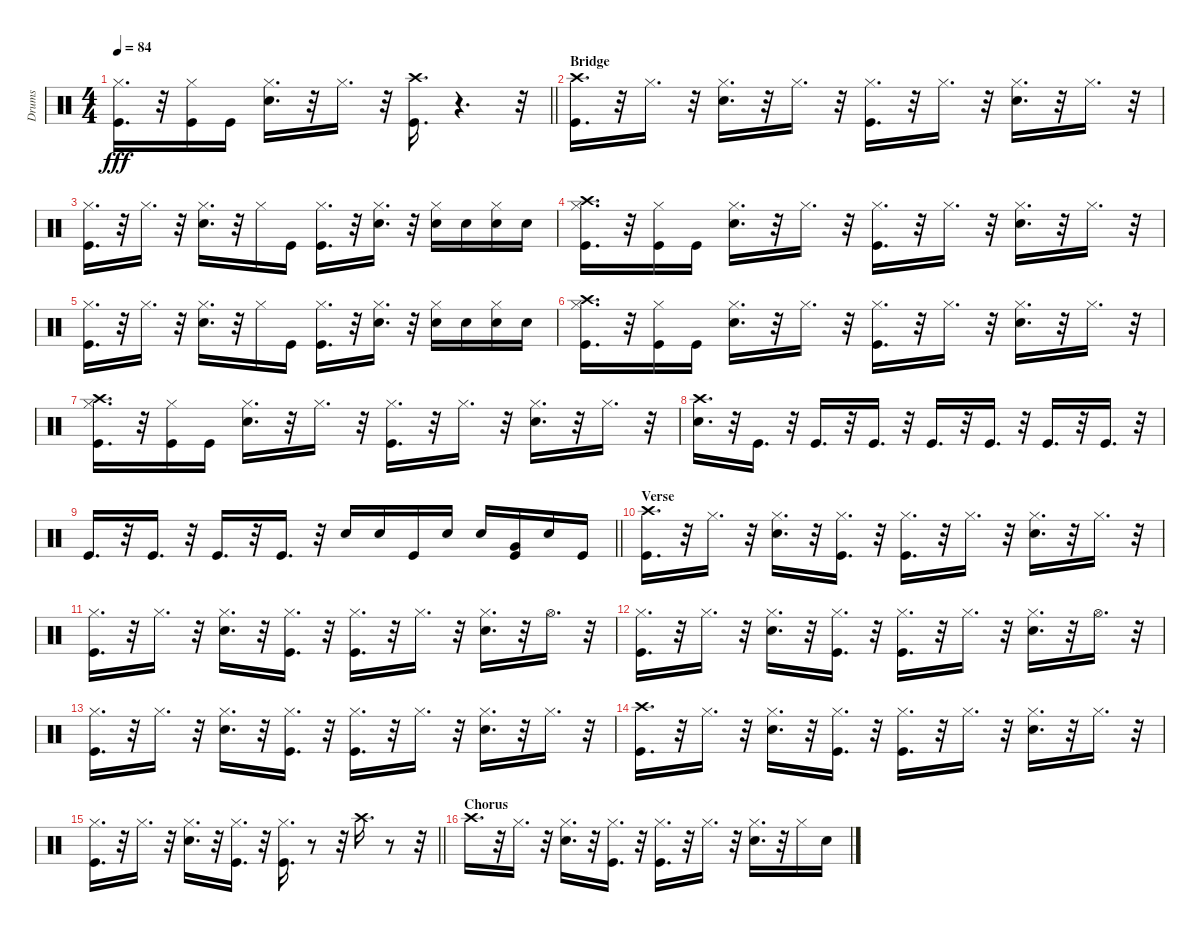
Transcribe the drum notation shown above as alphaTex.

\track ("Drums" "Drums") {instrument percussion}
\staff {score}
\articulation defaults
\ts (4 4)
\tempo 84
\clef neutral
\barLineRight lightlight
\ks c
("Kick (hit)" "Hi-Hat (closed)").16{d dy fff} r.32 ("Kick (hit)" "Hi-Hat (closed)").16 "Kick (hit)".16 ("Snare (hit) 2" "Hi-Hat (closed)").16{d} r.32 "Hi-Hat (closed)".16{d} r.32 ("Crash high (hit)" "Kick (hit)").16{d} r.4{d} r.32 |
\section ("" "Bridge")
("Crash high (hit)" "Kick (hit)").16{d} r.32 "Hi-Hat (closed)".16{d} r.32 ("Snare (hit) 2" "Hi-Hat (closed)").16{d} r.32 "Hi-Hat (closed)".16{d} r.32 ("Hi-Hat (closed)" "Kick (hit)").16{d} r.32 "Hi-Hat (closed)".16{d} r.32 ("Hi-Hat (closed)" "Snare (hit) 2").16{d} r.32 "Hi-Hat (closed)".16{d} r.32 |
("Kick (hit)" "Hi-Hat (closed)").16{d} r.32 "Hi-Hat (closed)".16{d} r.32 ("Snare (hit) 2" "Hi-Hat (closed)").16{d} r.32 "Hi-Hat (closed)".16 "Kick (hit)".16 ("Hi-Hat (closed)" "Kick (hit)").16{d} r.32 ("Hi-Hat (closed)" "Snare (hit) 2").16{d} r.32 ("Hi-Hat (closed)" "Snare (hit) 2").16 "Snare (hit) 2".16 ("Hi-Hat (closed)" "Snare (hit) 2").16 "Snare (hit) 2".16 |
("Crash high (hit)" "Kick (hit)" "Hi-Hat (closed)").16{d} r.32 ("Hi-Hat (closed)" "Kick (hit)").16 "Kick (hit)".16 ("Snare (hit) 2" "Hi-Hat (closed)").16{d} r.32 "Hi-Hat (closed)".16{d} r.32 ("Hi-Hat (closed)" "Kick (hit)").16{d} r.32 "Hi-Hat (closed)".16{d} r.32 ("Hi-Hat (closed)" "Snare (hit) 2").16{d} r.32 "Hi-Hat (closed)".16{d} r.32 |
("Kick (hit)" "Hi-Hat (closed)").16{d} r.32 "Hi-Hat (closed)".16{d} r.32 ("Snare (hit) 2" "Hi-Hat (closed)").16{d} r.32 "Hi-Hat (closed)".16 "Kick (hit)".16 ("Hi-Hat (closed)" "Kick (hit)").16{d} r.32 ("Hi-Hat (closed)" "Snare (hit) 2").16{d} r.32 ("Hi-Hat (closed)" "Snare (hit) 2").16 "Snare (hit) 2".16 ("Hi-Hat (closed)" "Snare (hit) 2").16 "Snare (hit) 2".16 |
("Crash high (hit)" "Kick (hit)" "Hi-Hat (closed)").16{d} r.32 ("Hi-Hat (closed)" "Kick (hit)").16 "Kick (hit)".16 ("Snare (hit) 2" "Hi-Hat (closed)").16{d} r.32 "Hi-Hat (closed)".16{d} r.32 ("Hi-Hat (closed)" "Kick (hit)").16{d} r.32 "Hi-Hat (closed)".16{d} r.32 ("Hi-Hat (closed)" "Snare (hit) 2").16{d} r.32 "Hi-Hat (closed)".16{d} r.32 |
("Crash high (hit)" "Kick (hit)" "Hi-Hat (closed)").16{d} r.32 ("Hi-Hat (closed)" "Kick (hit)").16 "Kick (hit)".16 ("Snare (hit) 2" "Hi-Hat (closed)").16{d} r.32 "Hi-Hat (closed)".16{d} r.32 ("Hi-Hat (closed)" "Kick (hit)").16{d} r.32 "Hi-Hat (closed)".16{d} r.32 ("Hi-Hat (closed)" "Snare (hit) 2").16{d} r.32 "Hi-Hat (closed)".16{d} r.32 |
("Crash high (hit)" "Snare (hit) 2").16{d} r.32 "Kick (hit)".16{d} r.32 "Kick (hit)".16{d} r.32 "Kick (hit)".16{d} r.32 "Kick (hit)".16{d} r.32 "Kick (hit)".16{d} r.32 "Kick (hit)".16{d} r.32 "Kick (hit)".16{d} r.32 |
\barLineRight lightlight "Kick (hit)".16{d}
r.32 "Kick (hit)".16{d} r.32 "Kick (hit)".16{d} r.32 "Kick (hit)".16{d} r.32 "Snare (hit) 2".16 "Snare (hit) 2".16 "Kick (hit)".16 "Snare (hit) 2".16 "Snare (hit) 2".16 ("Kick (hit)" "Very Low Tom (hit)").16 "Snare (hit) 2".16 "Kick (hit)".16 |
\section ("" "Verse")
("Crash high (hit)" "Kick (hit)").16{d} r.32 "Hi-Hat (closed)".16{d} r.32 ("Snare (hit) 2" "Hi-Hat (closed)").16{d} r.32 ("Hi-Hat (closed)" "Kick (hit)").16{d} r.32 ("Hi-Hat (closed)" "Kick (hit)").16{d} r.32 "Hi-Hat (closed)".16{d} r.32 ("Hi-Hat (closed)" "Snare (hit) 2").16{d} r.32 "Hi-Hat (closed)".16{d} r.32 |
("Kick (hit)" "Hi-Hat (closed)").16{d} r.32 "Hi-Hat (closed)".16{d} r.32 ("Snare (hit) 2" "Hi-Hat (closed)").16{d} r.32 ("Hi-Hat (closed)" "Kick (hit)").16{d} r.32 ("Hi-Hat (closed)" "Kick (hit)").16{d} r.32 "Hi-Hat (closed)".16{d} r.32 ("Hi-Hat (closed)" "Snare (hit) 2").16{d} r.32 "Hi-Hat (open)".16{d} r.32 |
("Kick (hit)" "Hi-Hat (closed)").16{d} r.32 "Hi-Hat (closed)".16{d} r.32 ("Snare (hit) 2" "Hi-Hat (closed)").16{d} r.32 ("Hi-Hat (closed)" "Kick (hit)").16{d} r.32 ("Hi-Hat (closed)" "Kick (hit)").16{d} r.32 "Hi-Hat (closed)".16{d} r.32 ("Hi-Hat (closed)" "Snare (hit) 2").16{d} r.32 "Hi-Hat (open)".16{d} r.32 |
("Kick (hit)" "Hi-Hat (closed)").16{d} r.32 "Hi-Hat (closed)".16{d} r.32 ("Snare (hit) 2" "Hi-Hat (closed)").16{d} r.32 ("Kick (hit)" "Hi-Hat (closed)").16{d} r.32 ("Kick (hit)" "Hi-Hat (closed)").16{d} r.32 "Hi-Hat (closed)".16{d} r.32 ("Snare (hit) 2" "Hi-Hat (closed)").16{d} r.32 "Hi-Hat (closed)".16{d} r.32 |
("Kick (hit)" "Crash high (hit)").16{d} r.32 "Hi-Hat (closed)".16{d} r.32 ("Snare (hit) 2" "Hi-Hat (closed)").16{d} r.32 ("Hi-Hat (closed)" "Kick (hit)").16{d} r.32 ("Hi-Hat (closed)" "Kick (hit)").16{d} r.32 "Hi-Hat (closed)".16{d} r.32 ("Hi-Hat (closed)" "Snare (hit) 2").16{d} r.32 "Hi-Hat (closed)".16{d} r.32 |
\barLineRight lightlight
("Kick (hit)" "Hi-Hat (closed)").16{d} r.32 "Hi-Hat (closed)".16{d} r.32 ("Snare (hit) 2" "Hi-Hat (closed)").16{d} r.32 ("Hi-Hat (closed)" "Kick (hit)").16{d} r.32 ("Hi-Hat (closed)" "Kick (hit)").16{d} r.8 r.32 "Crash high (hit)".16{d} r.8 r.32 |
\section ("" "Chorus")
"Crash high (hit)".16{d} r.32 "Hi-Hat (closed)".16{d} r.32 ("Snare (hit) 2" "Hi-Hat (closed)").16{d} r.32 ("Kick (hit)" "Hi-Hat (closed)").16{d} r.32 ("Kick (hit)" "Hi-Hat (closed)").16{d} r.32 "Hi-Hat (closed)".16{d} r.32 ("Snare (hit) 2" "Hi-Hat (closed)").16{d} r.32 "Hi-Hat (closed)".16 "Snare (hit) 2".16
